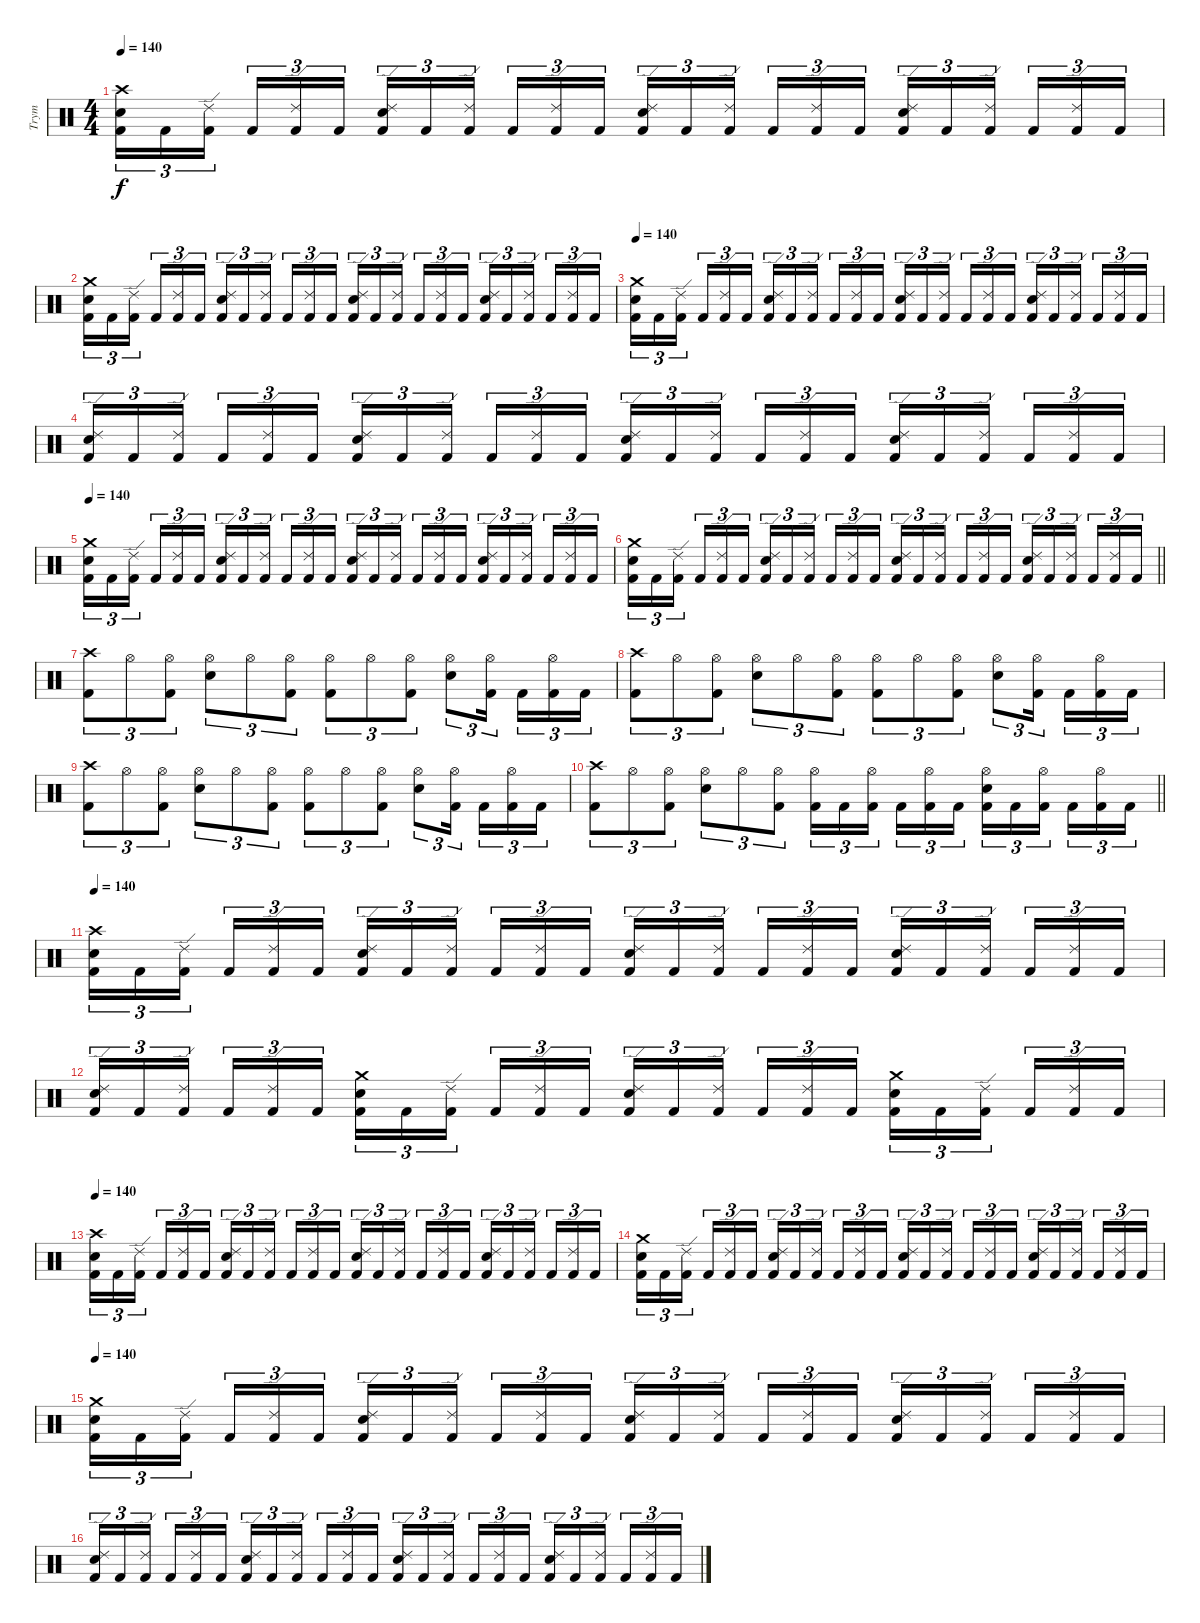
\track ("Trym" "Trym") {instrument percussion}
\staff {score}
\articulation defaults
\ts (4 4)
\tempo 140
\clef neutral
\ks c
("Crash high (hit)" "Electric Snare (hit)" "Kick (hit) 2").16{tu (3 2) dy f} "Kick (hit) 2".16{tu (3 2)} ("Ride (edge) 2" "Kick (hit) 2").16{tu (3 2) beam splitsecondary} "Kick (hit) 2".16{tu (3 2)} ("Ride (edge) 2" "Kick (hit) 2").16{tu (3 2)} "Kick (hit) 2".16{tu (3 2)} ("Ride (edge) 2" "Electric Snare (hit)" "Kick (hit) 2").16{tu (3 2)} "Kick (hit) 2".16{tu (3 2)} ("Ride (edge) 2" "Kick (hit) 2").16{tu (3 2) beam splitsecondary} "Kick (hit) 2".16{tu (3 2)} ("Ride (edge) 2" "Kick (hit) 2").16{tu (3 2)} "Kick (hit) 2".16{tu (3 2)} ("Ride (edge) 2" "Electric Snare (hit)" "Kick (hit) 2").16{tu (3 2)} "Kick (hit) 2".16{tu (3 2)} ("Ride (edge) 2" "Kick (hit) 2").16{tu (3 2) beam splitsecondary} "Kick (hit) 2".16{tu (3 2)} ("Ride (edge) 2" "Kick (hit) 2").16{tu (3 2)} "Kick (hit) 2".16{tu (3 2)} ("Ride (edge) 2" "Electric Snare (hit)" "Kick (hit) 2").16{tu (3 2)} "Kick (hit) 2".16{tu (3 2)} ("Ride (edge) 2" "Kick (hit) 2").16{tu (3 2) beam splitsecondary} "Kick (hit) 2".16{tu (3 2)} ("Ride (edge) 2" "Kick (hit) 2").16{tu (3 2)} "Kick (hit) 2".16{tu (3 2)} |
("Crash medium (hit)" "Electric Snare (hit)" "Kick (hit) 2").16{tu (3 2)} "Kick (hit) 2".16{tu (3 2)} ("Ride (edge) 2" "Kick (hit) 2").16{tu (3 2) beam splitsecondary} "Kick (hit) 2".16{tu (3 2)} ("Ride (edge) 2" "Kick (hit) 2").16{tu (3 2)} "Kick (hit) 2".16{tu (3 2)} ("Ride (edge) 2" "Electric Snare (hit)" "Kick (hit) 2").16{tu (3 2)} "Kick (hit) 2".16{tu (3 2)} ("Ride (edge) 2" "Kick (hit) 2").16{tu (3 2) beam splitsecondary} "Kick (hit) 2".16{tu (3 2)} ("Ride (edge) 2" "Kick (hit) 2").16{tu (3 2)} "Kick (hit) 2".16{tu (3 2)} ("Ride (edge) 2" "Electric Snare (hit)" "Kick (hit) 2").16{tu (3 2)} "Kick (hit) 2".16{tu (3 2)} ("Ride (edge) 2" "Kick (hit) 2").16{tu (3 2) beam splitsecondary} "Kick (hit) 2".16{tu (3 2)} ("Ride (edge) 2" "Kick (hit) 2").16{tu (3 2)} "Kick (hit) 2".16{tu (3 2)} ("Ride (edge) 2" "Electric Snare (hit)" "Kick (hit) 2").16{tu (3 2)} "Kick (hit) 2".16{tu (3 2)} ("Ride (edge) 2" "Kick (hit) 2").16{tu (3 2) beam splitsecondary} "Kick (hit) 2".16{tu (3 2)} ("Ride (edge) 2" "Kick (hit) 2").16{tu (3 2)} "Kick (hit) 2".16{tu (3 2)} |
\tempo 140
("Crash medium (hit)" "Electric Snare (hit)" "Kick (hit) 2").16{tu (3 2)} "Kick (hit) 2".16{tu (3 2)} ("Ride (edge) 2" "Kick (hit) 2").16{tu (3 2) beam splitsecondary} "Kick (hit) 2".16{tu (3 2)} ("Ride (edge) 2" "Kick (hit) 2").16{tu (3 2)} "Kick (hit) 2".16{tu (3 2)} ("Ride (edge) 2" "Electric Snare (hit)" "Kick (hit) 2").16{tu (3 2)} "Kick (hit) 2".16{tu (3 2)} ("Ride (edge) 2" "Kick (hit) 2").16{tu (3 2) beam splitsecondary} "Kick (hit) 2".16{tu (3 2)} ("Ride (edge) 2" "Kick (hit) 2").16{tu (3 2)} "Kick (hit) 2".16{tu (3 2)} ("Ride (edge) 2" "Electric Snare (hit)" "Kick (hit) 2").16{tu (3 2)} "Kick (hit) 2".16{tu (3 2)} ("Ride (edge) 2" "Kick (hit) 2").16{tu (3 2) beam splitsecondary} "Kick (hit) 2".16{tu (3 2)} ("Ride (edge) 2" "Kick (hit) 2").16{tu (3 2)} "Kick (hit) 2".16{tu (3 2)} ("Ride (edge) 2" "Electric Snare (hit)" "Kick (hit) 2").16{tu (3 2)} "Kick (hit) 2".16{tu (3 2)} ("Ride (edge) 2" "Kick (hit) 2").16{tu (3 2) beam splitsecondary} "Kick (hit) 2".16{tu (3 2)} ("Ride (edge) 2" "Kick (hit) 2").16{tu (3 2)} "Kick (hit) 2".16{tu (3 2)} |
("Ride (edge) 2" "Electric Snare (hit)" "Kick (hit) 2").16{tu (3 2)} "Kick (hit) 2".16{tu (3 2)} ("Ride (edge) 2" "Kick (hit) 2").16{tu (3 2) beam splitsecondary} "Kick (hit) 2".16{tu (3 2)} ("Ride (edge) 2" "Kick (hit) 2").16{tu (3 2)} "Kick (hit) 2".16{tu (3 2)} ("Ride (edge) 2" "Electric Snare (hit)" "Kick (hit) 2").16{tu (3 2)} "Kick (hit) 2".16{tu (3 2)} ("Ride (edge) 2" "Kick (hit) 2").16{tu (3 2) beam splitsecondary} "Kick (hit) 2".16{tu (3 2)} ("Ride (edge) 2" "Kick (hit) 2").16{tu (3 2)} "Kick (hit) 2".16{tu (3 2)} ("Ride (edge) 2" "Electric Snare (hit)" "Kick (hit) 2").16{tu (3 2)} "Kick (hit) 2".16{tu (3 2)} ("Ride (edge) 2" "Kick (hit) 2").16{tu (3 2) beam splitsecondary} "Kick (hit) 2".16{tu (3 2)} ("Ride (edge) 2" "Kick (hit) 2").16{tu (3 2)} "Kick (hit) 2".16{tu (3 2)} ("Ride (edge) 2" "Electric Snare (hit)" "Kick (hit) 2").16{tu (3 2)} "Kick (hit) 2".16{tu (3 2)} ("Ride (edge) 2" "Kick (hit) 2").16{tu (3 2) beam splitsecondary} "Kick (hit) 2".16{tu (3 2)} ("Ride (edge) 2" "Kick (hit) 2").16{tu (3 2)} "Kick (hit) 2".16{tu (3 2)} |
\tempo 140
("Crash medium (hit)" "Electric Snare (hit)" "Kick (hit) 2").16{tu (3 2)} "Kick (hit) 2".16{tu (3 2)} ("Ride (edge) 2" "Kick (hit) 2").16{tu (3 2) beam splitsecondary} "Kick (hit) 2".16{tu (3 2)} ("Ride (edge) 2" "Kick (hit) 2").16{tu (3 2)} "Kick (hit) 2".16{tu (3 2)} ("Ride (edge) 2" "Electric Snare (hit)" "Kick (hit) 2").16{tu (3 2)} "Kick (hit) 2".16{tu (3 2)} ("Ride (edge) 2" "Kick (hit) 2").16{tu (3 2) beam splitsecondary} "Kick (hit) 2".16{tu (3 2)} ("Ride (edge) 2" "Kick (hit) 2").16{tu (3 2)} "Kick (hit) 2".16{tu (3 2)} ("Ride (edge) 2" "Electric Snare (hit)" "Kick (hit) 2").16{tu (3 2)} "Kick (hit) 2".16{tu (3 2)} ("Ride (edge) 2" "Kick (hit) 2").16{tu (3 2) beam splitsecondary} "Kick (hit) 2".16{tu (3 2)} ("Ride (edge) 2" "Kick (hit) 2").16{tu (3 2)} "Kick (hit) 2".16{tu (3 2)} ("Ride (edge) 2" "Electric Snare (hit)" "Kick (hit) 2").16{tu (3 2)} "Kick (hit) 2".16{tu (3 2)} ("Ride (edge) 2" "Kick (hit) 2").16{tu (3 2) beam splitsecondary} "Kick (hit) 2".16{tu (3 2)} ("Ride (edge) 2" "Kick (hit) 2").16{tu (3 2)} "Kick (hit) 2".16{tu (3 2)} |
\barLineRight lightlight
("Crash medium (hit)" "Electric Snare (hit)" "Kick (hit) 2").16{tu (3 2)} "Kick (hit) 2".16{tu (3 2)} ("Ride (edge) 2" "Kick (hit) 2").16{tu (3 2) beam splitsecondary} "Kick (hit) 2".16{tu (3 2)} ("Ride (edge) 2" "Kick (hit) 2").16{tu (3 2)} "Kick (hit) 2".16{tu (3 2)} ("Ride (edge) 2" "Electric Snare (hit)" "Kick (hit) 2").16{tu (3 2)} "Kick (hit) 2".16{tu (3 2)} ("Ride (edge) 2" "Kick (hit) 2").16{tu (3 2) beam splitsecondary} "Kick (hit) 2".16{tu (3 2)} ("Ride (edge) 2" "Kick (hit) 2").16{tu (3 2)} "Kick (hit) 2".16{tu (3 2)} ("Ride (edge) 2" "Electric Snare (hit)" "Kick (hit) 2").16{tu (3 2)} "Kick (hit) 2".16{tu (3 2)} ("Ride (edge) 2" "Kick (hit) 2").16{tu (3 2) beam splitsecondary} "Kick (hit) 2".16{tu (3 2)} ("Ride (edge) 2" "Kick (hit) 2").16{tu (3 2)} "Kick (hit) 2".16{tu (3 2)} ("Ride (edge) 2" "Electric Snare (hit)" "Kick (hit) 2").16{tu (3 2)} "Kick (hit) 2".16{tu (3 2)} ("Ride (edge) 2" "Kick (hit) 2").16{tu (3 2) beam splitsecondary} "Kick (hit) 2".16{tu (3 2)} ("Ride (edge) 2" "Kick (hit) 2").16{tu (3 2)} "Kick (hit) 2".16{tu (3 2)} |
\section ("" "")
("Crash high (hit)" "Kick (hit) 2").8{tu (3 2)} "Hi-Hat (open)".8{tu (3 2)} ("Hi-Hat (open)" "Kick (hit) 2").8{tu (3 2)} ("Hi-Hat (open)" "Electric Snare (hit)").8{tu (3 2)} "Hi-Hat (open)".8{tu (3 2)} ("Hi-Hat (open)" "Kick (hit) 2").8{tu (3 2)} ("Hi-Hat (open)" "Kick (hit) 2").8{tu (3 2)} "Hi-Hat (open)".8{tu (3 2)} ("Hi-Hat (open)" "Kick (hit) 2").8{tu (3 2)} ("Hi-Hat (open)" "Electric Snare (hit)").8{tu (3 2)} ("Hi-Hat (open)" "Kick (hit) 2").16{tu (3 2) beam splitsecondary} "Kick (hit) 2".16{tu (3 2)} ("Hi-Hat (open)" "Kick (hit) 2").16{tu (3 2)} "Kick (hit) 2".16{tu (3 2)} |
("Crash high (hit)" "Kick (hit) 2").8{tu (3 2)} "Hi-Hat (open)".8{tu (3 2)} ("Hi-Hat (open)" "Kick (hit) 2").8{tu (3 2)} ("Hi-Hat (open)" "Electric Snare (hit)").8{tu (3 2)} "Hi-Hat (open)".8{tu (3 2)} ("Hi-Hat (open)" "Kick (hit) 2").8{tu (3 2)} ("Hi-Hat (open)" "Kick (hit) 2").8{tu (3 2)} "Hi-Hat (open)".8{tu (3 2)} ("Hi-Hat (open)" "Kick (hit) 2").8{tu (3 2)} ("Hi-Hat (open)" "Electric Snare (hit)").8{tu (3 2)} ("Hi-Hat (open)" "Kick (hit) 2").16{tu (3 2) beam splitsecondary} "Kick (hit) 2".16{tu (3 2)} ("Hi-Hat (open)" "Kick (hit) 2").16{tu (3 2)} "Kick (hit) 2".16{tu (3 2)} |
("Crash high (hit)" "Kick (hit) 2").8{tu (3 2)} "Hi-Hat (open)".8{tu (3 2)} ("Hi-Hat (open)" "Kick (hit) 2").8{tu (3 2)} ("Hi-Hat (open)" "Electric Snare (hit)").8{tu (3 2)} "Hi-Hat (open)".8{tu (3 2)} ("Hi-Hat (open)" "Kick (hit) 2").8{tu (3 2)} ("Hi-Hat (open)" "Kick (hit) 2").8{tu (3 2)} "Hi-Hat (open)".8{tu (3 2)} ("Hi-Hat (open)" "Kick (hit) 2").8{tu (3 2)} ("Hi-Hat (open)" "Electric Snare (hit)").8{tu (3 2)} ("Hi-Hat (open)" "Kick (hit) 2").16{tu (3 2) beam splitsecondary} "Kick (hit) 2".16{tu (3 2)} ("Hi-Hat (open)" "Kick (hit) 2").16{tu (3 2)} "Kick (hit) 2".16{tu (3 2)} |
\barLineRight lightlight
("Crash high (hit)" "Kick (hit) 2").8{tu (3 2)} "Hi-Hat (open)".8{tu (3 2)} ("Hi-Hat (open)" "Kick (hit) 2").8{tu (3 2)} ("Hi-Hat (open)" "Electric Snare (hit)").8{tu (3 2)} "Hi-Hat (open)".8{tu (3 2)} ("Hi-Hat (open)" "Kick (hit) 2").8{tu (3 2)} ("Hi-Hat (open)" "Kick (hit) 2").16{tu (3 2)} "Kick (hit) 2".16{tu (3 2)} ("Hi-Hat (open)" "Kick (hit) 2").16{tu (3 2) beam splitsecondary} "Kick (hit) 2".16{tu (3 2)} ("Hi-Hat (open)" "Kick (hit) 2").16{tu (3 2)} "Kick (hit) 2".16{tu (3 2)} ("Hi-Hat (open)" "Electric Snare (hit)" "Kick (hit) 2").16{tu (3 2)} "Kick (hit) 2".16{tu (3 2)} ("Hi-Hat (open)" "Kick (hit) 2").16{tu (3 2) beam splitsecondary} "Kick (hit) 2".16{tu (3 2)} ("Hi-Hat (open)" "Kick (hit) 2").16{tu (3 2)} "Kick (hit) 2".16{tu (3 2)} |
\section ("" "")
\tempo 140
("Crash high (hit)" "Electric Snare (hit)" "Kick (hit) 2").16{tu (3 2)} "Kick (hit) 2".16{tu (3 2)} ("Ride (edge) 2" "Kick (hit) 2").16{tu (3 2) beam splitsecondary} "Kick (hit) 2".16{tu (3 2)} ("Ride (edge) 2" "Kick (hit) 2").16{tu (3 2)} "Kick (hit) 2".16{tu (3 2)} ("Ride (edge) 2" "Electric Snare (hit)" "Kick (hit) 2").16{tu (3 2)} "Kick (hit) 2".16{tu (3 2)} ("Ride (edge) 2" "Kick (hit) 2").16{tu (3 2) beam splitsecondary} "Kick (hit) 2".16{tu (3 2)} ("Ride (edge) 2" "Kick (hit) 2").16{tu (3 2)} "Kick (hit) 2".16{tu (3 2)} ("Ride (edge) 2" "Electric Snare (hit)" "Kick (hit) 2").16{tu (3 2)} "Kick (hit) 2".16{tu (3 2)} ("Ride (edge) 2" "Kick (hit) 2").16{tu (3 2) beam splitsecondary} "Kick (hit) 2".16{tu (3 2)} ("Ride (edge) 2" "Kick (hit) 2").16{tu (3 2)} "Kick (hit) 2".16{tu (3 2)} ("Ride (edge) 2" "Electric Snare (hit)" "Kick (hit) 2").16{tu (3 2)} "Kick (hit) 2".16{tu (3 2)} ("Ride (edge) 2" "Kick (hit) 2").16{tu (3 2) beam splitsecondary} "Kick (hit) 2".16{tu (3 2)} ("Ride (edge) 2" "Kick (hit) 2").16{tu (3 2)} "Kick (hit) 2".16{tu (3 2)} |
("Ride (edge) 2" "Electric Snare (hit)" "Kick (hit) 2").16{tu (3 2)} "Kick (hit) 2".16{tu (3 2)} ("Ride (edge) 2" "Kick (hit) 2").16{tu (3 2) beam splitsecondary} "Kick (hit) 2".16{tu (3 2)} ("Ride (edge) 2" "Kick (hit) 2").16{tu (3 2)} "Kick (hit) 2".16{tu (3 2)} ("Crash medium (hit)" "Electric Snare (hit)" "Kick (hit) 2").16{tu (3 2)} "Kick (hit) 2".16{tu (3 2)} ("Ride (edge) 2" "Kick (hit) 2").16{tu (3 2) beam splitsecondary} "Kick (hit) 2".16{tu (3 2)} ("Ride (edge) 2" "Kick (hit) 2").16{tu (3 2)} "Kick (hit) 2".16{tu (3 2)} ("Ride (edge) 2" "Electric Snare (hit)" "Kick (hit) 2").16{tu (3 2)} "Kick (hit) 2".16{tu (3 2)} ("Ride (edge) 2" "Kick (hit) 2").16{tu (3 2) beam splitsecondary} "Kick (hit) 2".16{tu (3 2)} ("Ride (edge) 2" "Kick (hit) 2").16{tu (3 2)} "Kick (hit) 2".16{tu (3 2)} ("Crash medium (hit)" "Electric Snare (hit)" "Kick (hit) 2").16{tu (3 2)} "Kick (hit) 2".16{tu (3 2)} ("Ride (edge) 2" "Kick (hit) 2").16{tu (3 2) beam splitsecondary} "Kick (hit) 2".16{tu (3 2)} ("Ride (edge) 2" "Kick (hit) 2").16{tu (3 2)} "Kick (hit) 2".16{tu (3 2)} |
\tempo 140
("Crash high (hit)" "Electric Snare (hit)" "Kick (hit) 2").16{tu (3 2)} "Kick (hit) 2".16{tu (3 2)} ("Ride (edge) 2" "Kick (hit) 2").16{tu (3 2) beam splitsecondary} "Kick (hit) 2".16{tu (3 2)} ("Ride (edge) 2" "Kick (hit) 2").16{tu (3 2)} "Kick (hit) 2".16{tu (3 2)} ("Ride (edge) 2" "Electric Snare (hit)" "Kick (hit) 2").16{tu (3 2)} "Kick (hit) 2".16{tu (3 2)} ("Ride (edge) 2" "Kick (hit) 2").16{tu (3 2) beam splitsecondary} "Kick (hit) 2".16{tu (3 2)} ("Ride (edge) 2" "Kick (hit) 2").16{tu (3 2)} "Kick (hit) 2".16{tu (3 2)} ("Ride (edge) 2" "Electric Snare (hit)" "Kick (hit) 2").16{tu (3 2)} "Kick (hit) 2".16{tu (3 2)} ("Ride (edge) 2" "Kick (hit) 2").16{tu (3 2) beam splitsecondary} "Kick (hit) 2".16{tu (3 2)} ("Ride (edge) 2" "Kick (hit) 2").16{tu (3 2)} "Kick (hit) 2".16{tu (3 2)} ("Ride (edge) 2" "Electric Snare (hit)" "Kick (hit) 2").16{tu (3 2)} "Kick (hit) 2".16{tu (3 2)} ("Ride (edge) 2" "Kick (hit) 2").16{tu (3 2) beam splitsecondary} "Kick (hit) 2".16{tu (3 2)} ("Ride (edge) 2" "Kick (hit) 2").16{tu (3 2)} "Kick (hit) 2".16{tu (3 2)} |
("Crash medium (hit)" "Electric Snare (hit)" "Kick (hit) 2").16{tu (3 2)} "Kick (hit) 2".16{tu (3 2)} ("Ride (edge) 2" "Kick (hit) 2").16{tu (3 2) beam splitsecondary} "Kick (hit) 2".16{tu (3 2)} ("Ride (edge) 2" "Kick (hit) 2").16{tu (3 2)} "Kick (hit) 2".16{tu (3 2)} ("Ride (edge) 2" "Electric Snare (hit)" "Kick (hit) 2").16{tu (3 2)} "Kick (hit) 2".16{tu (3 2)} ("Ride (edge) 2" "Kick (hit) 2").16{tu (3 2) beam splitsecondary} "Kick (hit) 2".16{tu (3 2)} ("Ride (edge) 2" "Kick (hit) 2").16{tu (3 2)} "Kick (hit) 2".16{tu (3 2)} ("Ride (edge) 2" "Electric Snare (hit)" "Kick (hit) 2").16{tu (3 2)} "Kick (hit) 2".16{tu (3 2)} ("Ride (edge) 2" "Kick (hit) 2").16{tu (3 2) beam splitsecondary} "Kick (hit) 2".16{tu (3 2)} ("Ride (edge) 2" "Kick (hit) 2").16{tu (3 2)} "Kick (hit) 2".16{tu (3 2)} ("Ride (edge) 2" "Electric Snare (hit)" "Kick (hit) 2").16{tu (3 2)} "Kick (hit) 2".16{tu (3 2)} ("Ride (edge) 2" "Kick (hit) 2").16{tu (3 2) beam splitsecondary} "Kick (hit) 2".16{tu (3 2)} ("Ride (edge) 2" "Kick (hit) 2").16{tu (3 2)} "Kick (hit) 2".16{tu (3 2)} |
\tempo 140
("Crash medium (hit)" "Electric Snare (hit)" "Kick (hit) 2").16{tu (3 2)} "Kick (hit) 2".16{tu (3 2)} ("Ride (edge) 2" "Kick (hit) 2").16{tu (3 2) beam splitsecondary} "Kick (hit) 2".16{tu (3 2)} ("Ride (edge) 2" "Kick (hit) 2").16{tu (3 2)} "Kick (hit) 2".16{tu (3 2)} ("Ride (edge) 2" "Electric Snare (hit)" "Kick (hit) 2").16{tu (3 2)} "Kick (hit) 2".16{tu (3 2)} ("Ride (edge) 2" "Kick (hit) 2").16{tu (3 2) beam splitsecondary} "Kick (hit) 2".16{tu (3 2)} ("Ride (edge) 2" "Kick (hit) 2").16{tu (3 2)} "Kick (hit) 2".16{tu (3 2)} ("Ride (edge) 2" "Electric Snare (hit)" "Kick (hit) 2").16{tu (3 2)} "Kick (hit) 2".16{tu (3 2)} ("Ride (edge) 2" "Kick (hit) 2").16{tu (3 2) beam splitsecondary} "Kick (hit) 2".16{tu (3 2)} ("Ride (edge) 2" "Kick (hit) 2").16{tu (3 2)} "Kick (hit) 2".16{tu (3 2)} ("Ride (edge) 2" "Electric Snare (hit)" "Kick (hit) 2").16{tu (3 2)} "Kick (hit) 2".16{tu (3 2)} ("Ride (edge) 2" "Kick (hit) 2").16{tu (3 2) beam splitsecondary} "Kick (hit) 2".16{tu (3 2)} ("Ride (edge) 2" "Kick (hit) 2").16{tu (3 2)} "Kick (hit) 2".16{tu (3 2)} |
("Ride (edge) 2" "Electric Snare (hit)" "Kick (hit) 2").16{tu (3 2)} "Kick (hit) 2".16{tu (3 2)} ("Ride (edge) 2" "Kick (hit) 2").16{tu (3 2) beam splitsecondary} "Kick (hit) 2".16{tu (3 2)} ("Ride (edge) 2" "Kick (hit) 2").16{tu (3 2)} "Kick (hit) 2".16{tu (3 2)} ("Ride (edge) 2" "Electric Snare (hit)" "Kick (hit) 2").16{tu (3 2)} "Kick (hit) 2".16{tu (3 2)} ("Ride (edge) 2" "Kick (hit) 2").16{tu (3 2) beam splitsecondary} "Kick (hit) 2".16{tu (3 2)} ("Ride (edge) 2" "Kick (hit) 2").16{tu (3 2)} "Kick (hit) 2".16{tu (3 2)} ("Ride (edge) 2" "Electric Snare (hit)" "Kick (hit) 2").16{tu (3 2)} "Kick (hit) 2".16{tu (3 2)} ("Ride (edge) 2" "Kick (hit) 2").16{tu (3 2) beam splitsecondary} "Kick (hit) 2".16{tu (3 2)} ("Ride (edge) 2" "Kick (hit) 2").16{tu (3 2)} "Kick (hit) 2".16{tu (3 2)} ("Ride (edge) 2" "Electric Snare (hit)" "Kick (hit) 2").16{tu (3 2)} "Kick (hit) 2".16{tu (3 2)} ("Ride (edge) 2" "Kick (hit) 2").16{tu (3 2) beam splitsecondary} "Kick (hit) 2".16{tu (3 2)} ("Ride (edge) 2" "Kick (hit) 2").16{tu (3 2)} "Kick (hit) 2".16{tu (3 2)}
